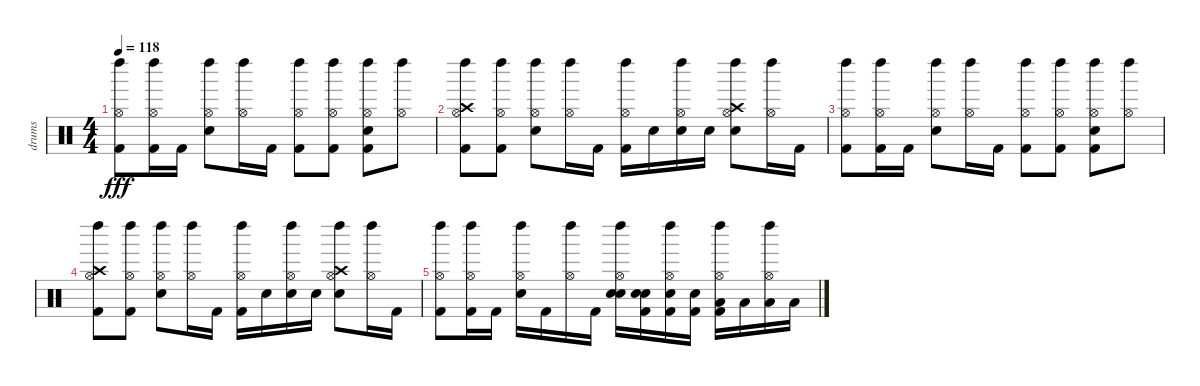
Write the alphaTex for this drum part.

\track ("drums" "drums") {instrument percussion}
\staff {score}
\articulation defaults
\ts (4 4)
\tempo 118
\clef neutral
\ks c
("Hi-Hat (open)" "Kick (hit) 2" "Left Maraca (hit)").8{dy fff} ("Kick (hit) 2" "Hi-Hat (open)" "Left Maraca (hit)").16 "Kick (hit) 2".16 ("Electric Snare (hit)" "Hi-Hat (open)" "Left Maraca (hit)").8 ("Left Maraca (hit)" "Hi-Hat (open)").16 "Kick (hit) 2".16 ("Hi-Hat (open)" "Kick (hit) 2" "Left Maraca (hit)").8 ("Left Maraca (hit)" "Kick (hit) 2" "Hi-Hat (open)").8 ("Kick (hit) 2" "Electric Snare (hit)" "Left Maraca (hit)" "Hi-Hat (open)").8 ("Hi-Hat (open)" "Left Maraca (hit)").8 |
("Left Maraca (hit)" "Hi-Hat (open)" "Kick (hit) 2" "Crash high (hit)").8 ("Left Maraca (hit)" "Kick (hit) 2" "Hi-Hat (open)").8 ("Electric Snare (hit)" "Hi-Hat (open)" "Left Maraca (hit)").8 ("Left Maraca (hit)" "Hi-Hat (open)").16 "Kick (hit) 2".16 ("Kick (hit) 2" "Hi-Hat (open)" "Left Maraca (hit)").16 "Electric Snare (hit)".16 ("Hi-Hat (open)" "Left Maraca (hit)" "Electric Snare (hit)").16 "Electric Snare (hit)".16 ("Crash high (hit)" "Hi-Hat (open)" "Left Maraca (hit)" "Electric Snare (hit)").8 ("Left Maraca (hit)" "Hi-Hat (open)").16 "Kick (hit) 2".16 |
("Hi-Hat (open)" "Kick (hit) 2" "Left Maraca (hit)").8 ("Kick (hit) 2" "Hi-Hat (open)" "Left Maraca (hit)").16 "Kick (hit) 2".16 ("Electric Snare (hit)" "Hi-Hat (open)" "Left Maraca (hit)").8 ("Left Maraca (hit)" "Hi-Hat (open)").16 "Kick (hit) 2".16 ("Hi-Hat (open)" "Kick (hit) 2" "Left Maraca (hit)").8 ("Left Maraca (hit)" "Kick (hit) 2" "Hi-Hat (open)").8 ("Kick (hit) 2" "Electric Snare (hit)" "Left Maraca (hit)" "Hi-Hat (open)").8 ("Hi-Hat (open)" "Left Maraca (hit)").8 |
("Left Maraca (hit)" "Hi-Hat (open)" "Kick (hit) 2" "Crash high (hit)").8 ("Left Maraca (hit)" "Kick (hit) 2" "Hi-Hat (open)").8 ("Electric Snare (hit)" "Hi-Hat (open)" "Left Maraca (hit)").8 ("Left Maraca (hit)" "Hi-Hat (open)").16 "Kick (hit) 2".16 ("Kick (hit) 2" "Hi-Hat (open)" "Left Maraca (hit)").16 "Electric Snare (hit)".16 ("Hi-Hat (open)" "Left Maraca (hit)" "Electric Snare (hit)").16 "Electric Snare (hit)".16 ("Crash high (hit)" "Hi-Hat (open)" "Left Maraca (hit)" "Electric Snare (hit)").8 ("Left Maraca (hit)" "Hi-Hat (open)").16 "Kick (hit) 2".16 |
("Hi-Hat (open)" "Left Maraca (hit)" "Kick (hit) 2").8 ("Kick (hit) 2" "Hi-Hat (open)" "Left Maraca (hit)").16 "Kick (hit) 2".16 ("Electric Snare (hit)" "Left Maraca (hit)" "Hi-Hat (open)").16 "Kick (hit) 2".16 ("Hi-Hat (open)" "Left Maraca (hit)").16 "Kick (hit) 2".16 ("Hi-Hat (open)" "Left Maraca (hit)" "Electric Snare (hit)" "Electric Snare (hit)").16 ("Kick (hit) 2" "Electric Snare (hit)" "Electric Snare (hit)").16 ("Electric Snare (hit)" "Hi-Hat (open)" "Left Maraca (hit)" "Kick (hit) 2").16 ("Electric Snare (hit)" "Kick (hit) 2").16 ("Hi-Hat (open)" "Low Tom (hit)" "Kick (hit) 2" "Left Maraca (hit)").16 "Low Tom (hit)".16 ("Left Maraca (hit)" "Hi-Hat (open)" "Low Floor Tom (hit)").16 "Low Floor Tom (hit)".16
